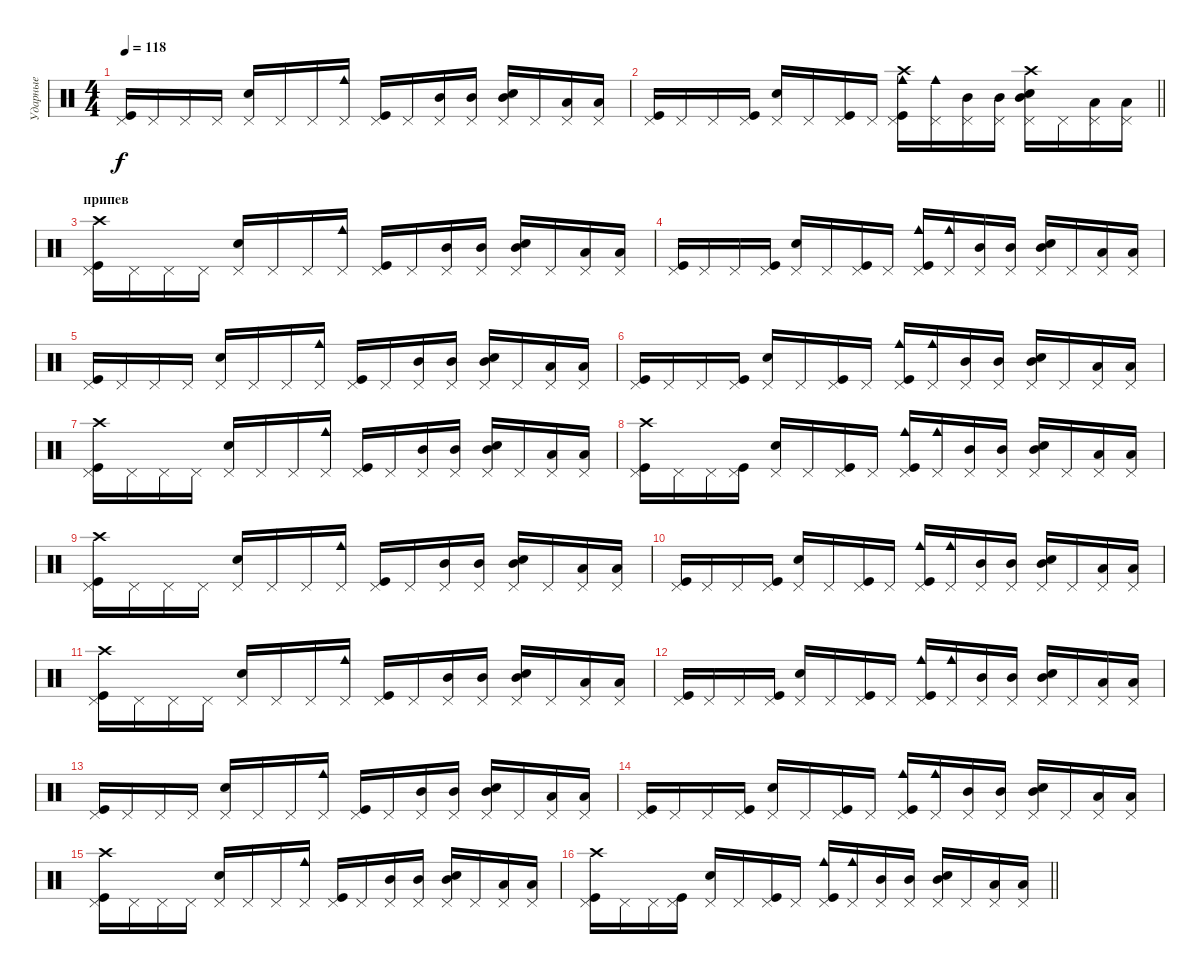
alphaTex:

\track ("Ударные" "Ударные") {instrument percussion}
\staff {score}
\articulation defaults
\ts (4 4)
\tempo 118
\clef neutral
\ks c
("Pedal Hi-Hat (hit)" "Kick (hit)").16{dy f} "Pedal Hi-Hat (hit)".16 "Pedal Hi-Hat (hit)".16 "Pedal Hi-Hat (hit)".16 ("Pedal Hi-Hat (hit)" "Snare (hit) 2").16 "Pedal Hi-Hat (hit)".16 "Pedal Hi-Hat (hit)".16 ("Pedal Hi-Hat (hit)" "Cowbell medium (hit)").16 ("Pedal Hi-Hat (hit)" "Kick (hit)").16 "Pedal Hi-Hat (hit)".16 ("Pedal Hi-Hat (hit)" "Mid Tom (hit)").16 ("Pedal Hi-Hat (hit)" "Mid Tom (hit)").16 ("Pedal Hi-Hat (hit)" "Mid Tom (hit)" "Snare (hit) 2").16 "Pedal Hi-Hat (hit)".16 ("Pedal Hi-Hat (hit)" "Low Tom (hit)").16 ("Pedal Hi-Hat (hit)" "Low Tom (hit)").16 |
\barLineRight lightlight
("Pedal Hi-Hat (hit)" "Kick (hit)").16 "Pedal Hi-Hat (hit)".16 "Pedal Hi-Hat (hit)".16 ("Pedal Hi-Hat (hit)" "Kick (hit)").16 ("Pedal Hi-Hat (hit)" "Snare (hit) 2").16 "Pedal Hi-Hat (hit)".16 ("Pedal Hi-Hat (hit)" "Kick (hit)").16 "Pedal Hi-Hat (hit)".16 ("Pedal Hi-Hat (hit)" "Kick (hit)" "Cowbell medium (hit)" "Crash high (hit)").16 ("Pedal Hi-Hat (hit)" "Cowbell medium (hit)").16 ("Pedal Hi-Hat (hit)" "Mid Tom (hit)").16 ("Pedal Hi-Hat (hit)" "Mid Tom (hit)").16 ("Pedal Hi-Hat (hit)" "Mid Tom (hit)" "Snare (hit) 2" "Crash high (hit)").16 "Pedal Hi-Hat (hit)".16 ("Pedal Hi-Hat (hit)" "Low Tom (hit)").16 ("Pedal Hi-Hat (hit)" "Low Tom (hit)").16 |
\section ("" "припев")
("Pedal Hi-Hat (hit)" "Kick (hit)" "Crash high (hit)").16 "Pedal Hi-Hat (hit)".16 "Pedal Hi-Hat (hit)".16 "Pedal Hi-Hat (hit)".16 ("Pedal Hi-Hat (hit)" "Snare (hit) 2").16 "Pedal Hi-Hat (hit)".16 "Pedal Hi-Hat (hit)".16 ("Pedal Hi-Hat (hit)" "Cowbell medium (hit)").16 ("Pedal Hi-Hat (hit)" "Kick (hit)").16 "Pedal Hi-Hat (hit)".16 ("Pedal Hi-Hat (hit)" "Mid Tom (hit)").16 ("Pedal Hi-Hat (hit)" "Mid Tom (hit)").16 ("Pedal Hi-Hat (hit)" "Mid Tom (hit)" "Snare (hit) 2").16 "Pedal Hi-Hat (hit)".16 ("Pedal Hi-Hat (hit)" "Low Tom (hit)").16 ("Pedal Hi-Hat (hit)" "Low Tom (hit)").16 |
("Pedal Hi-Hat (hit)" "Kick (hit)").16 "Pedal Hi-Hat (hit)".16 "Pedal Hi-Hat (hit)".16 ("Pedal Hi-Hat (hit)" "Kick (hit)").16 ("Pedal Hi-Hat (hit)" "Snare (hit) 2").16 "Pedal Hi-Hat (hit)".16 ("Pedal Hi-Hat (hit)" "Kick (hit)").16 "Pedal Hi-Hat (hit)".16 ("Pedal Hi-Hat (hit)" "Kick (hit)" "Cowbell medium (hit)").16 ("Pedal Hi-Hat (hit)" "Cowbell medium (hit)").16 ("Pedal Hi-Hat (hit)" "Mid Tom (hit)").16 ("Pedal Hi-Hat (hit)" "Mid Tom (hit)").16 ("Pedal Hi-Hat (hit)" "Mid Tom (hit)" "Snare (hit) 2").16 "Pedal Hi-Hat (hit)".16 ("Pedal Hi-Hat (hit)" "Low Tom (hit)").16 ("Pedal Hi-Hat (hit)" "Low Tom (hit)").16 |
("Pedal Hi-Hat (hit)" "Kick (hit)").16 "Pedal Hi-Hat (hit)".16 "Pedal Hi-Hat (hit)".16 "Pedal Hi-Hat (hit)".16 ("Pedal Hi-Hat (hit)" "Snare (hit) 2").16 "Pedal Hi-Hat (hit)".16 "Pedal Hi-Hat (hit)".16 ("Pedal Hi-Hat (hit)" "Cowbell medium (hit)").16 ("Pedal Hi-Hat (hit)" "Kick (hit)").16 "Pedal Hi-Hat (hit)".16 ("Pedal Hi-Hat (hit)" "Mid Tom (hit)").16 ("Pedal Hi-Hat (hit)" "Mid Tom (hit)").16 ("Pedal Hi-Hat (hit)" "Mid Tom (hit)" "Snare (hit) 2").16 "Pedal Hi-Hat (hit)".16 ("Pedal Hi-Hat (hit)" "Low Tom (hit)").16 ("Pedal Hi-Hat (hit)" "Low Tom (hit)").16 |
("Pedal Hi-Hat (hit)" "Kick (hit)").16 "Pedal Hi-Hat (hit)".16 "Pedal Hi-Hat (hit)".16 ("Pedal Hi-Hat (hit)" "Kick (hit)").16 ("Pedal Hi-Hat (hit)" "Snare (hit) 2").16 "Pedal Hi-Hat (hit)".16 ("Pedal Hi-Hat (hit)" "Kick (hit)").16 "Pedal Hi-Hat (hit)".16 ("Pedal Hi-Hat (hit)" "Kick (hit)" "Cowbell medium (hit)").16 ("Pedal Hi-Hat (hit)" "Cowbell medium (hit)").16 ("Pedal Hi-Hat (hit)" "Mid Tom (hit)").16 ("Pedal Hi-Hat (hit)" "Mid Tom (hit)").16 ("Pedal Hi-Hat (hit)" "Mid Tom (hit)" "Snare (hit) 2").16 "Pedal Hi-Hat (hit)".16 ("Pedal Hi-Hat (hit)" "Low Tom (hit)").16 ("Pedal Hi-Hat (hit)" "Low Tom (hit)").16 |
("Pedal Hi-Hat (hit)" "Kick (hit)" "Crash high (hit)").16 "Pedal Hi-Hat (hit)".16 "Pedal Hi-Hat (hit)".16 "Pedal Hi-Hat (hit)".16 ("Pedal Hi-Hat (hit)" "Snare (hit) 2").16 "Pedal Hi-Hat (hit)".16 "Pedal Hi-Hat (hit)".16 ("Pedal Hi-Hat (hit)" "Cowbell medium (hit)").16 ("Pedal Hi-Hat (hit)" "Kick (hit)").16 "Pedal Hi-Hat (hit)".16 ("Pedal Hi-Hat (hit)" "Mid Tom (hit)").16 ("Pedal Hi-Hat (hit)" "Mid Tom (hit)").16 ("Pedal Hi-Hat (hit)" "Mid Tom (hit)" "Snare (hit) 2").16 "Pedal Hi-Hat (hit)".16 ("Pedal Hi-Hat (hit)" "Low Tom (hit)").16 ("Pedal Hi-Hat (hit)" "Low Tom (hit)").16 |
("Pedal Hi-Hat (hit)" "Kick (hit)" "Crash high (hit)").16 "Pedal Hi-Hat (hit)".16 "Pedal Hi-Hat (hit)".16 ("Pedal Hi-Hat (hit)" "Kick (hit)").16 ("Pedal Hi-Hat (hit)" "Snare (hit) 2").16 "Pedal Hi-Hat (hit)".16 ("Pedal Hi-Hat (hit)" "Kick (hit)").16 "Pedal Hi-Hat (hit)".16 ("Pedal Hi-Hat (hit)" "Kick (hit)" "Cowbell medium (hit)").16 ("Pedal Hi-Hat (hit)" "Cowbell medium (hit)").16 ("Pedal Hi-Hat (hit)" "Mid Tom (hit)").16 ("Pedal Hi-Hat (hit)" "Mid Tom (hit)").16 ("Pedal Hi-Hat (hit)" "Mid Tom (hit)" "Snare (hit) 2").16 "Pedal Hi-Hat (hit)".16 ("Pedal Hi-Hat (hit)" "Low Tom (hit)").16 ("Pedal Hi-Hat (hit)" "Low Tom (hit)").16 |
("Pedal Hi-Hat (hit)" "Kick (hit)" "Crash high (hit)").16 "Pedal Hi-Hat (hit)".16 "Pedal Hi-Hat (hit)".16 "Pedal Hi-Hat (hit)".16 ("Pedal Hi-Hat (hit)" "Snare (hit) 2").16 "Pedal Hi-Hat (hit)".16 "Pedal Hi-Hat (hit)".16 ("Pedal Hi-Hat (hit)" "Cowbell medium (hit)").16 ("Pedal Hi-Hat (hit)" "Kick (hit)").16 "Pedal Hi-Hat (hit)".16 ("Pedal Hi-Hat (hit)" "Mid Tom (hit)").16 ("Pedal Hi-Hat (hit)" "Mid Tom (hit)").16 ("Pedal Hi-Hat (hit)" "Mid Tom (hit)" "Snare (hit) 2").16 "Pedal Hi-Hat (hit)".16 ("Pedal Hi-Hat (hit)" "Low Tom (hit)").16 ("Pedal Hi-Hat (hit)" "Low Tom (hit)").16 |
("Pedal Hi-Hat (hit)" "Kick (hit)").16 "Pedal Hi-Hat (hit)".16 "Pedal Hi-Hat (hit)".16 ("Pedal Hi-Hat (hit)" "Kick (hit)").16 ("Pedal Hi-Hat (hit)" "Snare (hit) 2").16 "Pedal Hi-Hat (hit)".16 ("Pedal Hi-Hat (hit)" "Kick (hit)").16 "Pedal Hi-Hat (hit)".16 ("Pedal Hi-Hat (hit)" "Kick (hit)" "Cowbell medium (hit)").16 ("Pedal Hi-Hat (hit)" "Cowbell medium (hit)").16 ("Pedal Hi-Hat (hit)" "Mid Tom (hit)").16 ("Pedal Hi-Hat (hit)" "Mid Tom (hit)").16 ("Pedal Hi-Hat (hit)" "Mid Tom (hit)" "Snare (hit) 2").16 "Pedal Hi-Hat (hit)".16 ("Pedal Hi-Hat (hit)" "Low Tom (hit)").16 ("Pedal Hi-Hat (hit)" "Low Tom (hit)").16 |
("Pedal Hi-Hat (hit)" "Kick (hit)" "Crash high (hit)").16 "Pedal Hi-Hat (hit)".16 "Pedal Hi-Hat (hit)".16 "Pedal Hi-Hat (hit)".16 ("Pedal Hi-Hat (hit)" "Snare (hit) 2").16 "Pedal Hi-Hat (hit)".16 "Pedal Hi-Hat (hit)".16 ("Pedal Hi-Hat (hit)" "Cowbell medium (hit)").16 ("Pedal Hi-Hat (hit)" "Kick (hit)").16 "Pedal Hi-Hat (hit)".16 ("Pedal Hi-Hat (hit)" "Mid Tom (hit)").16 ("Pedal Hi-Hat (hit)" "Mid Tom (hit)").16 ("Pedal Hi-Hat (hit)" "Mid Tom (hit)" "Snare (hit) 2").16 "Pedal Hi-Hat (hit)".16 ("Pedal Hi-Hat (hit)" "Low Tom (hit)").16 ("Pedal Hi-Hat (hit)" "Low Tom (hit)").16 |
("Pedal Hi-Hat (hit)" "Kick (hit)").16 "Pedal Hi-Hat (hit)".16 "Pedal Hi-Hat (hit)".16 ("Pedal Hi-Hat (hit)" "Kick (hit)").16 ("Pedal Hi-Hat (hit)" "Snare (hit) 2").16 "Pedal Hi-Hat (hit)".16 ("Pedal Hi-Hat (hit)" "Kick (hit)").16 "Pedal Hi-Hat (hit)".16 ("Pedal Hi-Hat (hit)" "Kick (hit)" "Cowbell medium (hit)").16 ("Pedal Hi-Hat (hit)" "Cowbell medium (hit)").16 ("Pedal Hi-Hat (hit)" "Mid Tom (hit)").16 ("Pedal Hi-Hat (hit)" "Mid Tom (hit)").16 ("Pedal Hi-Hat (hit)" "Mid Tom (hit)" "Snare (hit) 2").16 "Pedal Hi-Hat (hit)".16 ("Pedal Hi-Hat (hit)" "Low Tom (hit)").16 ("Pedal Hi-Hat (hit)" "Low Tom (hit)").16 |
("Pedal Hi-Hat (hit)" "Kick (hit)").16 "Pedal Hi-Hat (hit)".16 "Pedal Hi-Hat (hit)".16 "Pedal Hi-Hat (hit)".16 ("Pedal Hi-Hat (hit)" "Snare (hit) 2").16 "Pedal Hi-Hat (hit)".16 "Pedal Hi-Hat (hit)".16 ("Pedal Hi-Hat (hit)" "Cowbell medium (hit)").16 ("Pedal Hi-Hat (hit)" "Kick (hit)").16 "Pedal Hi-Hat (hit)".16 ("Pedal Hi-Hat (hit)" "Mid Tom (hit)").16 ("Pedal Hi-Hat (hit)" "Mid Tom (hit)").16 ("Pedal Hi-Hat (hit)" "Mid Tom (hit)" "Snare (hit) 2").16 "Pedal Hi-Hat (hit)".16 ("Pedal Hi-Hat (hit)" "Low Tom (hit)").16 ("Pedal Hi-Hat (hit)" "Low Tom (hit)").16 |
("Pedal Hi-Hat (hit)" "Kick (hit)").16 "Pedal Hi-Hat (hit)".16 "Pedal Hi-Hat (hit)".16 ("Pedal Hi-Hat (hit)" "Kick (hit)").16 ("Pedal Hi-Hat (hit)" "Snare (hit) 2").16 "Pedal Hi-Hat (hit)".16 ("Pedal Hi-Hat (hit)" "Kick (hit)").16 "Pedal Hi-Hat (hit)".16 ("Pedal Hi-Hat (hit)" "Kick (hit)" "Cowbell medium (hit)").16 ("Pedal Hi-Hat (hit)" "Cowbell medium (hit)").16 ("Pedal Hi-Hat (hit)" "Mid Tom (hit)").16 ("Pedal Hi-Hat (hit)" "Mid Tom (hit)").16 ("Pedal Hi-Hat (hit)" "Mid Tom (hit)" "Snare (hit) 2").16 "Pedal Hi-Hat (hit)".16 ("Pedal Hi-Hat (hit)" "Low Tom (hit)").16 ("Pedal Hi-Hat (hit)" "Low Tom (hit)").16 |
("Pedal Hi-Hat (hit)" "Kick (hit)" "Crash high (hit)").16 "Pedal Hi-Hat (hit)".16 "Pedal Hi-Hat (hit)".16 "Pedal Hi-Hat (hit)".16 ("Pedal Hi-Hat (hit)" "Snare (hit) 2").16 "Pedal Hi-Hat (hit)".16 "Pedal Hi-Hat (hit)".16 ("Pedal Hi-Hat (hit)" "Cowbell medium (hit)").16 ("Pedal Hi-Hat (hit)" "Kick (hit)").16 "Pedal Hi-Hat (hit)".16 ("Pedal Hi-Hat (hit)" "Mid Tom (hit)").16 ("Pedal Hi-Hat (hit)" "Mid Tom (hit)").16 ("Pedal Hi-Hat (hit)" "Mid Tom (hit)" "Snare (hit) 2").16 "Pedal Hi-Hat (hit)".16 ("Pedal Hi-Hat (hit)" "Low Tom (hit)").16 ("Pedal Hi-Hat (hit)" "Low Tom (hit)").16 |
\barLineRight lightlight
("Pedal Hi-Hat (hit)" "Kick (hit)" "Crash high (hit)").16 "Pedal Hi-Hat (hit)".16 "Pedal Hi-Hat (hit)".16 ("Pedal Hi-Hat (hit)" "Kick (hit)").16 ("Pedal Hi-Hat (hit)" "Snare (hit) 2").16 "Pedal Hi-Hat (hit)".16 ("Pedal Hi-Hat (hit)" "Kick (hit)").16 "Pedal Hi-Hat (hit)".16 ("Pedal Hi-Hat (hit)" "Kick (hit)" "Cowbell medium (hit)").16 ("Pedal Hi-Hat (hit)" "Cowbell medium (hit)").16 ("Pedal Hi-Hat (hit)" "Mid Tom (hit)").16 ("Pedal Hi-Hat (hit)" "Mid Tom (hit)").16 ("Pedal Hi-Hat (hit)" "Mid Tom (hit)" "Snare (hit) 2").16 "Pedal Hi-Hat (hit)".16 ("Pedal Hi-Hat (hit)" "Low Tom (hit)").16 ("Pedal Hi-Hat (hit)" "Low Tom (hit)").16
